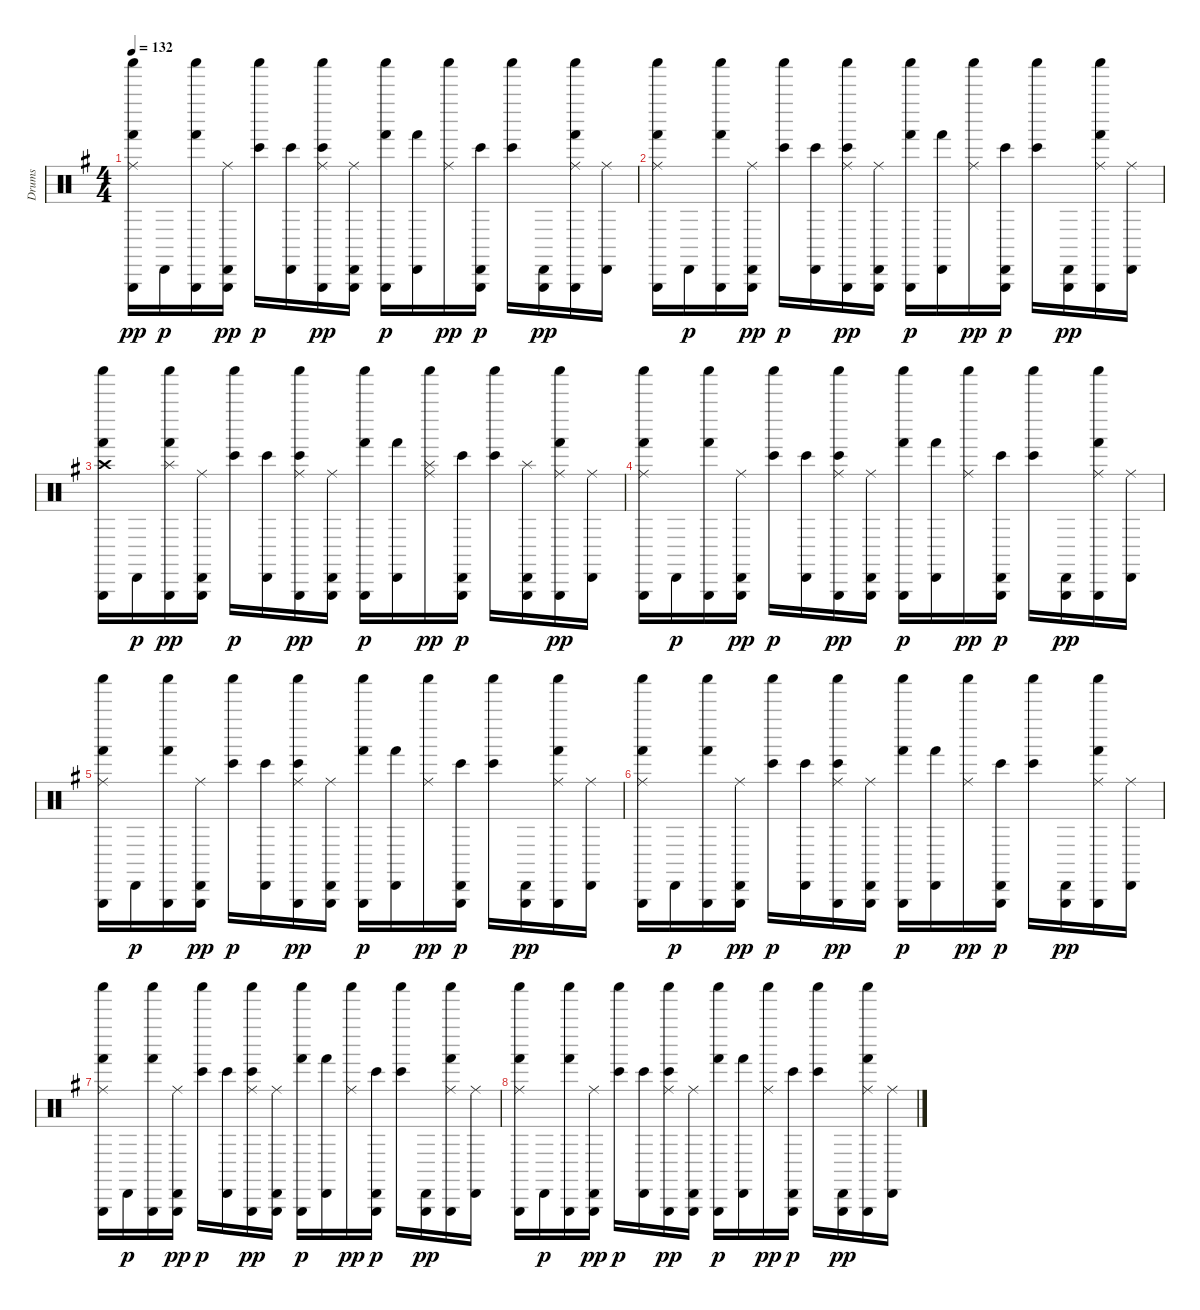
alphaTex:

\track ("Drums" "Drums") {instrument percussion}
\staff {score}
\articulation defaults
\ts (4 4)
\tempo 132
\clef neutral
\ks g
("Shaker (hit)" "Triangle (hit)" "Hand (hit)" "Ride (middle)").16{dy pp} "Cabasa (hit)".16{dy p} ("Shaker (hit)" "Triangle (hit)" "Hand (hit)").16 ("Cabasa (hit)" "Triangle (hit)" "Ride (middle)").16{dy pp} ("Shaker (hit)" "Bongo High (hit)").16{dy p} ("Cabasa (hit)" "Bongo High (hit)").16 ("Shaker (hit)" "Triangle (hit)" "Bongo High (hit)" "Ride (middle)").16{dy pp} ("Cabasa (hit)" "Triangle (hit)" "Ride (middle)").16 ("Shaker (hit)" "Triangle (hit)" "Hand (hit)").16{dy p} ("Cabasa (hit)" "Hand (hit)").16 ("Shaker (hit)" "Ride (middle)").16{dy pp} ("Cabasa (hit)" "Triangle (hit)" "Bongo High (hit)").16{dy p} ("Shaker (hit)" "Bongo High (hit)").16 ("Cabasa (hit)" "Triangle (hit)").16{dy pp} ("Shaker (hit)" "Triangle (hit)" "Hand (hit)" "Ride (middle)").16 ("Cabasa (hit)" "Ride (middle)").16 |
("Shaker (hit)" "Triangle (hit)" "Hand (hit)" "Ride (middle)").16 "Cabasa (hit)".16{dy p} ("Shaker (hit)" "Triangle (hit)" "Hand (hit)").16 ("Cabasa (hit)" "Triangle (hit)" "Ride (middle)").16{dy pp} ("Shaker (hit)" "Bongo High (hit)").16{dy p} ("Cabasa (hit)" "Bongo High (hit)").16 ("Shaker (hit)" "Triangle (hit)" "Bongo High (hit)" "Ride (middle)").16{dy pp} ("Cabasa (hit)" "Triangle (hit)" "Ride (middle)").16 ("Shaker (hit)" "Triangle (hit)" "Hand (hit)").16{dy p} ("Cabasa (hit)" "Hand (hit)").16 ("Shaker (hit)" "Ride (middle)").16{dy pp} ("Cabasa (hit)" "Triangle (hit)" "Bongo High (hit)").16{dy p} ("Shaker (hit)" "Bongo High (hit)").16 ("Cabasa (hit)" "Triangle (hit)").16{dy pp} ("Shaker (hit)" "Triangle (hit)" "Hand (hit)" "Ride (middle)").16 ("Cabasa (hit)" "Ride (middle)").16 |
("Shaker (hit)" "Triangle (hit)" "Hand (hit)" "Crash high (hit)").16 "Cabasa (hit)".16{dy p} ("Shaker (hit)" "Triangle (hit)" "Hand (hit)" "Splash (hit)").16{dy pp} ("Cabasa (hit)" "Triangle (hit)" "Ride (middle)").16 ("Shaker (hit)" "Bongo High (hit)").16{dy p} ("Cabasa (hit)" "Bongo High (hit)").16 ("Shaker (hit)" "Triangle (hit)" "Bongo High (hit)" "Ride (middle)").16{dy pp} ("Cabasa (hit)" "Triangle (hit)" "Ride (middle)").16 ("Shaker (hit)" "Triangle (hit)" "Hand (hit)").16{dy p} ("Cabasa (hit)" "Hand (hit)").16 ("Shaker (hit)" "Splash (hit)" "Ride (middle)").16{dy pp} ("Cabasa (hit)" "Triangle (hit)" "Bongo High (hit)").16{dy p} ("Shaker (hit)" "Bongo High (hit)").16 ("Cabasa (hit)" "Triangle (hit)" "Splash (hit)").16 ("Shaker (hit)" "Triangle (hit)" "Hand (hit)" "Ride (middle)").16{dy pp} ("Cabasa (hit)" "Ride (middle)").16 |
("Shaker (hit)" "Triangle (hit)" "Hand (hit)" "Ride (middle)").16 "Cabasa (hit)".16{dy p} ("Shaker (hit)" "Triangle (hit)" "Hand (hit)").16 ("Cabasa (hit)" "Triangle (hit)" "Ride (middle)").16{dy pp} ("Shaker (hit)" "Bongo High (hit)").16{dy p} ("Cabasa (hit)" "Bongo High (hit)").16 ("Shaker (hit)" "Triangle (hit)" "Bongo High (hit)" "Ride (middle)").16{dy pp} ("Cabasa (hit)" "Triangle (hit)" "Ride (middle)").16 ("Shaker (hit)" "Triangle (hit)" "Hand (hit)").16{dy p} ("Cabasa (hit)" "Hand (hit)").16 ("Shaker (hit)" "Ride (middle)").16{dy pp} ("Cabasa (hit)" "Triangle (hit)" "Bongo High (hit)").16{dy p} ("Shaker (hit)" "Bongo High (hit)").16 ("Cabasa (hit)" "Triangle (hit)").16{dy pp} ("Shaker (hit)" "Triangle (hit)" "Hand (hit)" "Ride (middle)").16 ("Cabasa (hit)" "Ride (middle)").16 |
("Shaker (hit)" "Triangle (hit)" "Hand (hit)" "Ride (middle)").16 "Cabasa (hit)".16{dy p} ("Shaker (hit)" "Triangle (hit)" "Hand (hit)").16 ("Cabasa (hit)" "Triangle (hit)" "Ride (middle)").16{dy pp} ("Shaker (hit)" "Bongo High (hit)").16{dy p} ("Cabasa (hit)" "Bongo High (hit)").16 ("Shaker (hit)" "Triangle (hit)" "Bongo High (hit)" "Ride (middle)").16{dy pp} ("Cabasa (hit)" "Triangle (hit)" "Ride (middle)").16 ("Shaker (hit)" "Triangle (hit)" "Hand (hit)").16{dy p} ("Cabasa (hit)" "Hand (hit)").16 ("Shaker (hit)" "Ride (middle)").16{dy pp} ("Cabasa (hit)" "Triangle (hit)" "Bongo High (hit)").16{dy p} ("Shaker (hit)" "Bongo High (hit)").16 ("Cabasa (hit)" "Triangle (hit)").16{dy pp} ("Shaker (hit)" "Triangle (hit)" "Hand (hit)" "Ride (middle)").16 ("Cabasa (hit)" "Ride (middle)").16 |
("Shaker (hit)" "Triangle (hit)" "Hand (hit)" "Ride (middle)").16 "Cabasa (hit)".16{dy p} ("Shaker (hit)" "Triangle (hit)" "Hand (hit)").16 ("Cabasa (hit)" "Triangle (hit)" "Ride (middle)").16{dy pp} ("Shaker (hit)" "Bongo High (hit)").16{dy p} ("Cabasa (hit)" "Bongo High (hit)").16 ("Shaker (hit)" "Triangle (hit)" "Bongo High (hit)" "Ride (middle)").16{dy pp} ("Cabasa (hit)" "Triangle (hit)" "Ride (middle)").16 ("Shaker (hit)" "Triangle (hit)" "Hand (hit)").16{dy p} ("Cabasa (hit)" "Hand (hit)").16 ("Shaker (hit)" "Ride (middle)").16{dy pp} ("Cabasa (hit)" "Triangle (hit)" "Bongo High (hit)").16{dy p} ("Shaker (hit)" "Bongo High (hit)").16 ("Cabasa (hit)" "Triangle (hit)").16{dy pp} ("Shaker (hit)" "Triangle (hit)" "Hand (hit)" "Ride (middle)").16 ("Cabasa (hit)" "Ride (middle)").16 |
("Shaker (hit)" "Triangle (hit)" "Hand (hit)" "Ride (middle)").16 "Cabasa (hit)".16{dy p} ("Shaker (hit)" "Triangle (hit)" "Hand (hit)").16 ("Cabasa (hit)" "Triangle (hit)" "Ride (middle)").16{dy pp} ("Shaker (hit)" "Bongo High (hit)").16{dy p} ("Cabasa (hit)" "Bongo High (hit)").16 ("Shaker (hit)" "Triangle (hit)" "Bongo High (hit)" "Ride (middle)").16{dy pp} ("Cabasa (hit)" "Triangle (hit)" "Ride (middle)").16 ("Shaker (hit)" "Triangle (hit)" "Hand (hit)").16{dy p} ("Cabasa (hit)" "Hand (hit)").16 ("Shaker (hit)" "Ride (middle)").16{dy pp} ("Cabasa (hit)" "Triangle (hit)" "Bongo High (hit)").16{dy p} ("Shaker (hit)" "Bongo High (hit)").16 ("Cabasa (hit)" "Triangle (hit)").16{dy pp} ("Shaker (hit)" "Triangle (hit)" "Hand (hit)" "Ride (middle)").16 ("Cabasa (hit)" "Ride (middle)").16 |
("Shaker (hit)" "Triangle (hit)" "Hand (hit)" "Ride (middle)").16 "Cabasa (hit)".16{dy p} ("Shaker (hit)" "Triangle (hit)" "Hand (hit)").16 ("Cabasa (hit)" "Triangle (hit)" "Ride (middle)").16{dy pp} ("Shaker (hit)" "Bongo High (hit)").16{dy p} ("Cabasa (hit)" "Bongo High (hit)").16 ("Shaker (hit)" "Triangle (hit)" "Bongo High (hit)" "Ride (middle)").16{dy pp} ("Cabasa (hit)" "Triangle (hit)" "Ride (middle)").16 ("Shaker (hit)" "Triangle (hit)" "Hand (hit)").16{dy p} ("Cabasa (hit)" "Hand (hit)").16 ("Shaker (hit)" "Ride (middle)").16{dy pp} ("Cabasa (hit)" "Triangle (hit)" "Bongo High (hit)").16{dy p} ("Shaker (hit)" "Bongo High (hit)").16 ("Cabasa (hit)" "Triangle (hit)").16{dy pp} ("Shaker (hit)" "Triangle (hit)" "Hand (hit)" "Ride (middle)").16 ("Cabasa (hit)" "Ride (middle)").16
